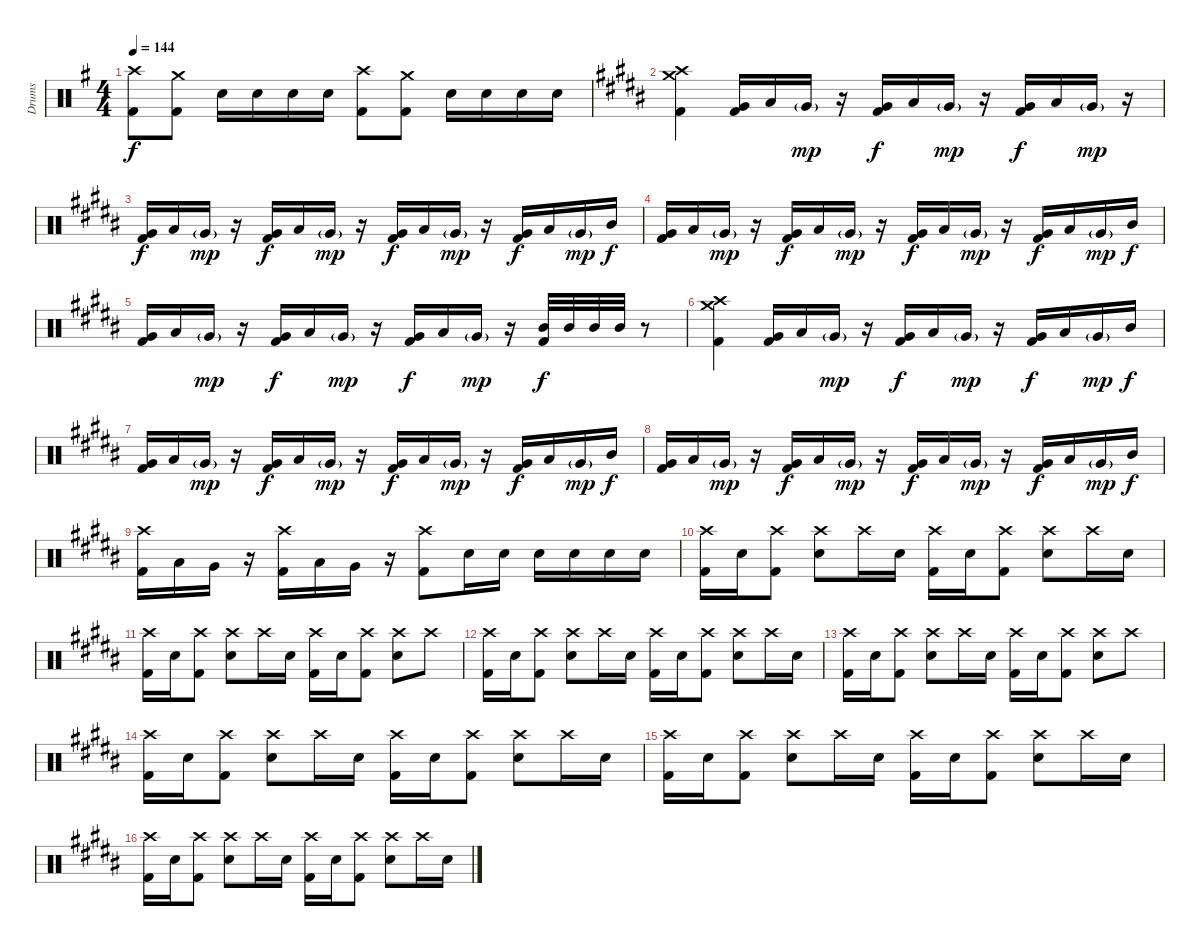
\track ("Drums" "Drums") {instrument percussion}
\staff {score}
\articulation defaults
\ts (4 4)
\tempo 144
\clef neutral
\ks eminor
("Crash high (hit)" "Kick (hit) 2").8{dy f} ("Crash medium (hit)" "Kick (hit) 2").8 "Snare (hit) 2".16 "Snare (hit) 2".16 "Snare (hit) 2".16 "Snare (hit) 2".16 ("Crash high (hit)" "Kick (hit) 2").8 ("Crash medium (hit)" "Kick (hit) 2").8 "Snare (hit) 2".16 "Snare (hit) 2".16 "Snare (hit) 2".16 "Snare (hit) 2".16 |
\ks g#minor
("Crash high (hit)" "Crash medium (hit)" "Kick (hit) 2").4 ("Very Low Tom (hit)" "Kick (hit) 2").16 "Low Tom (hit)".16 "Very Low Tom (hit)"{g}.16{dy mp} r.16 ("Very Low Tom (hit)" "Kick (hit) 2").16{dy f} "Low Tom (hit)".16 "Very Low Tom (hit)"{g}.16{dy mp} r.16 ("Very Low Tom (hit)" "Kick (hit) 2").16{dy f} "Low Tom (hit)".16 "Very Low Tom (hit)"{g}.16{dy mp} r.16 |
("Very Low Tom (hit)" "Kick (hit) 2").16{dy f} "Low Tom (hit)".16 "Very Low Tom (hit)"{g}.16{dy mp} r.16 ("Very Low Tom (hit)" "Kick (hit) 2").16{dy f} "Low Tom (hit)".16 "Very Low Tom (hit)"{g}.16{dy mp} r.16 ("Very Low Tom (hit)" "Kick (hit) 2").16{dy f} "Low Tom (hit)".16 "Very Low Tom (hit)"{g}.16{dy mp} r.16 ("Very Low Tom (hit)" "Kick (hit) 2").16{dy f} "Low Tom (hit)".16 "Very Low Tom (hit)"{g}.16{dy mp} "Mid Tom (hit)".16{dy f} |
("Very Low Tom (hit)" "Kick (hit) 2").16 "Low Tom (hit)".16 "Very Low Tom (hit)"{g}.16{dy mp} r.16 ("Very Low Tom (hit)" "Kick (hit) 2").16{dy f} "Low Tom (hit)".16 "Very Low Tom (hit)"{g}.16{dy mp} r.16 ("Very Low Tom (hit)" "Kick (hit) 2").16{dy f} "Low Tom (hit)".16 "Very Low Tom (hit)"{g}.16{dy mp} r.16 ("Very Low Tom (hit)" "Kick (hit) 2").16{dy f} "Low Tom (hit)".16 "Very Low Tom (hit)"{g}.16{dy mp} "Mid Tom (hit)".16{dy f} |
("Very Low Tom (hit)" "Kick (hit) 2").16 "Low Tom (hit)".16 "Very Low Tom (hit)"{g}.16{dy mp} r.16 ("Very Low Tom (hit)" "Kick (hit) 2").16{dy f} "Low Tom (hit)".16 "Very Low Tom (hit)"{g}.16{dy mp} r.16 ("Very Low Tom (hit)" "Kick (hit) 2").16{dy f} "Low Tom (hit)".16 "Very Low Tom (hit)"{g}.16{dy mp} r.16 ("Mid Tom (hit)" "Kick (hit) 2").32{dy f} "Mid Tom (hit)".32 "Mid Tom (hit)".32 "Mid Tom (hit)".32 r.8 |
("Crash high (hit)" "Crash medium (hit)" "Kick (hit) 2").4 ("Very Low Tom (hit)" "Kick (hit) 2").16 "Low Tom (hit)".16 "Very Low Tom (hit)"{g}.16{dy mp} r.16 ("Very Low Tom (hit)" "Kick (hit) 2").16{dy f} "Low Tom (hit)".16 "Very Low Tom (hit)"{g}.16{dy mp} r.16 ("Very Low Tom (hit)" "Kick (hit) 2").16{dy f} "Low Tom (hit)".16 "Very Low Tom (hit)"{g}.16{dy mp} "Mid Tom (hit)".16{dy f} |
("Very Low Tom (hit)" "Kick (hit) 2").16 "Low Tom (hit)".16 "Very Low Tom (hit)"{g}.16{dy mp} r.16 ("Very Low Tom (hit)" "Kick (hit) 2").16{dy f} "Low Tom (hit)".16 "Very Low Tom (hit)"{g}.16{dy mp} r.16 ("Very Low Tom (hit)" "Kick (hit) 2").16{dy f} "Low Tom (hit)".16 "Very Low Tom (hit)"{g}.16{dy mp} r.16 ("Very Low Tom (hit)" "Kick (hit) 2").16{dy f} "Low Tom (hit)".16 "Very Low Tom (hit)"{g}.16{dy mp} "Mid Tom (hit)".16{dy f} |
("Very Low Tom (hit)" "Kick (hit) 2").16 "Low Tom (hit)".16 "Very Low Tom (hit)"{g}.16{dy mp} r.16 ("Very Low Tom (hit)" "Kick (hit) 2").16{dy f} "Low Tom (hit)".16 "Very Low Tom (hit)"{g}.16{dy mp} r.16 ("Very Low Tom (hit)" "Kick (hit) 2").16{dy f} "Low Tom (hit)".16 "Very Low Tom (hit)"{g}.16{dy mp} r.16 ("Very Low Tom (hit)" "Kick (hit) 2").16{dy f} "Low Tom (hit)".16 "Very Low Tom (hit)"{g}.16{dy mp} "Mid Tom (hit)".16{dy f} |
("Crash high (hit)" "Kick (hit) 2").16 "Low Tom (hit)".16 "Very Low Tom (hit)".16 r.16 ("Crash high (hit)" "Kick (hit) 2").16 "Low Tom (hit)".16 "Very Low Tom (hit)".16 r.16 ("Crash high (hit)" "Kick (hit) 2").8 "Snare (hit) 2".16 "Snare (hit) 2".16 "Snare (hit) 2".16 "Snare (hit) 2".16 "Snare (hit) 2".16 "Snare (hit) 2".16 |
("Crash high (hit)" "Kick (hit) 2").16 "Snare (hit) 2".16 ("Crash high (hit)" "Kick (hit) 2").8 ("Crash high (hit)" "Snare (hit) 2").8 "Crash high (hit)".16 "Snare (hit) 2".16 ("Crash high (hit)" "Kick (hit) 2").16 "Snare (hit) 2".16 ("Crash high (hit)" "Kick (hit) 2").8 ("Crash high (hit)" "Snare (hit) 2").8 "Crash high (hit)".16 "Snare (hit) 2".16 |
("Crash high (hit)" "Kick (hit) 2").16 "Snare (hit) 2".16 ("Crash high (hit)" "Kick (hit) 2").8 ("Crash high (hit)" "Snare (hit) 2").8 "Crash high (hit)".16 "Snare (hit) 2".16 ("Crash high (hit)" "Kick (hit) 2").16 "Snare (hit) 2".16 ("Crash high (hit)" "Kick (hit) 2").8 ("Crash high (hit)" "Snare (hit) 2").8 "Crash high (hit)".8 |
("Crash high (hit)" "Kick (hit) 2").16 "Snare (hit) 2".16 ("Crash high (hit)" "Kick (hit) 2").8 ("Crash high (hit)" "Snare (hit) 2").8 "Crash high (hit)".16 "Snare (hit) 2".16 ("Crash high (hit)" "Kick (hit) 2").16 "Snare (hit) 2".16 ("Crash high (hit)" "Kick (hit) 2").8 ("Crash high (hit)" "Snare (hit) 2").8 "Crash high (hit)".16 "Snare (hit) 2".16 |
("Crash high (hit)" "Kick (hit) 2").16 "Snare (hit) 2".16 ("Crash high (hit)" "Kick (hit) 2").8 ("Crash high (hit)" "Snare (hit) 2").8 "Crash high (hit)".16 "Snare (hit) 2".16 ("Crash high (hit)" "Kick (hit) 2").16 "Snare (hit) 2".16 ("Crash high (hit)" "Kick (hit) 2").8 ("Crash high (hit)" "Snare (hit) 2").8 "Crash high (hit)".8 |
("Crash high (hit)" "Kick (hit) 2").16 "Snare (hit) 2".16 ("Crash high (hit)" "Kick (hit) 2").8 ("Crash high (hit)" "Snare (hit) 2").8 "Crash high (hit)".16 "Snare (hit) 2".16 ("Crash high (hit)" "Kick (hit) 2").16 "Snare (hit) 2".16 ("Crash high (hit)" "Kick (hit) 2").8 ("Crash high (hit)" "Snare (hit) 2").8 "Crash high (hit)".16 "Snare (hit) 2".16 |
("Crash high (hit)" "Kick (hit) 2").16 "Snare (hit) 2".16 ("Crash high (hit)" "Kick (hit) 2").8 ("Crash high (hit)" "Snare (hit) 2").8 "Crash high (hit)".16 "Snare (hit) 2".16 ("Crash high (hit)" "Kick (hit) 2").16 "Snare (hit) 2".16 ("Crash high (hit)" "Kick (hit) 2").8 ("Crash high (hit)" "Snare (hit) 2").8 "Crash high (hit)".16 "Snare (hit) 2".16 |
("Crash high (hit)" "Kick (hit) 2").16 "Snare (hit) 2".16 ("Crash high (hit)" "Kick (hit) 2").8 ("Crash high (hit)" "Snare (hit) 2").8 "Crash high (hit)".16 "Snare (hit) 2".16 ("Crash high (hit)" "Kick (hit) 2").16 "Snare (hit) 2".16 ("Crash high (hit)" "Kick (hit) 2").8 ("Crash high (hit)" "Snare (hit) 2").8 "Crash high (hit)".16 "Snare (hit) 2".16
